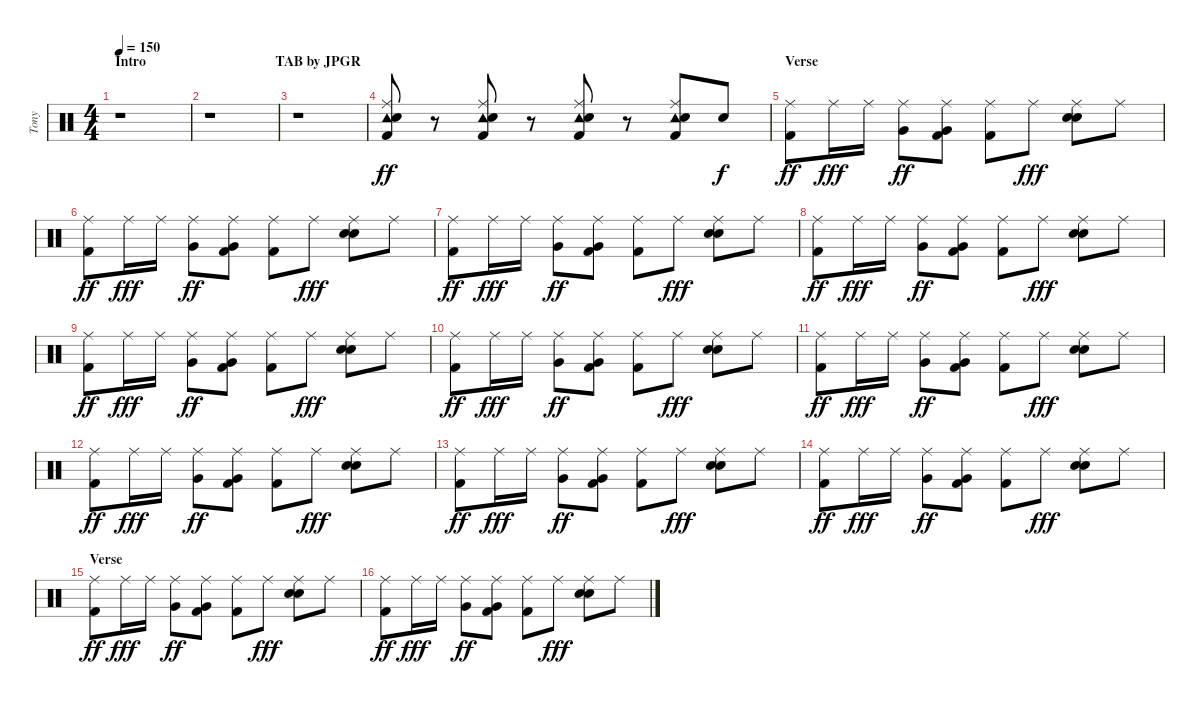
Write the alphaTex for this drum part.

\track ("Tony" "Tony") {instrument percussion}
\staff {score}
\articulation defaults
\ts (4 4)
\section ("" "Intro                                     TAB by JPGR")
\tempo 150
\clef neutral
\ks c
r.1{dy ff} |
r.1 |
r.1 |
("Tambourine (hit)" "Ride (middle)" "Electric Snare (hit)" "Kick (hit) 2").8 r.8 ("Tambourine (hit)" "Ride (middle)" "Electric Snare (hit)" "Kick (hit) 2").8 r.8 ("Tambourine (hit)" "Ride (middle)" "Electric Snare (hit)" "Kick (hit) 2").8 r.8 ("Tambourine (hit)" "Ride (middle)" "Electric Snare (hit)" "Kick (hit) 2").8 "Electric Snare (hit)".8{dy f} |
\section ("" "Verse")
("Ride (middle)" "Kick (hit) 2").8{dy ff} "Ride (middle)".16{dy fff} "Ride (middle)".16 ("Ride (middle)" "Very Low Tom (hit)").8{dy ff} ("Ride (middle)" "Very Low Tom (hit)" "Kick (hit) 2").8 ("Ride (middle)" "Kick (hit) 2").8 "Ride (middle)".8{dy fff} ("Ride (middle)" "Electric Snare (hit)" "Snare (hit) 2").8 "Ride (middle)".8 |
("Ride (middle)" "Kick (hit) 2").8{dy ff} "Ride (middle)".16{dy fff} "Ride (middle)".16 ("Ride (middle)" "Very Low Tom (hit)").8{dy ff} ("Ride (middle)" "Very Low Tom (hit)" "Kick (hit) 2").8 ("Ride (middle)" "Kick (hit) 2").8 "Ride (middle)".8{dy fff} ("Ride (middle)" "Electric Snare (hit)" "Snare (hit) 2").8 "Ride (middle)".8 |
("Ride (middle)" "Kick (hit) 2").8{dy ff} "Ride (middle)".16{dy fff} "Ride (middle)".16 ("Ride (middle)" "Very Low Tom (hit)").8{dy ff} ("Ride (middle)" "Very Low Tom (hit)" "Kick (hit) 2").8 ("Ride (middle)" "Kick (hit) 2").8 "Ride (middle)".8{dy fff} ("Ride (middle)" "Electric Snare (hit)" "Snare (hit) 2").8 "Ride (middle)".8 |
("Ride (middle)" "Kick (hit) 2").8{dy ff} "Ride (middle)".16{dy fff} "Ride (middle)".16 ("Ride (middle)" "Very Low Tom (hit)").8{dy ff} ("Ride (middle)" "Very Low Tom (hit)" "Kick (hit) 2").8 ("Ride (middle)" "Kick (hit) 2").8 "Ride (middle)".8{dy fff} ("Ride (middle)" "Electric Snare (hit)" "Snare (hit) 2").8 "Ride (middle)".8 |
("Ride (middle)" "Kick (hit) 2").8{dy ff} "Ride (middle)".16{dy fff} "Ride (middle)".16 ("Ride (middle)" "Very Low Tom (hit)").8{dy ff} ("Ride (middle)" "Very Low Tom (hit)" "Kick (hit) 2").8 ("Ride (middle)" "Kick (hit) 2").8 "Ride (middle)".8{dy fff} ("Ride (middle)" "Electric Snare (hit)" "Snare (hit) 2").8 "Ride (middle)".8 |
("Ride (middle)" "Kick (hit) 2").8{dy ff} "Ride (middle)".16{dy fff} "Ride (middle)".16 ("Ride (middle)" "Very Low Tom (hit)").8{dy ff} ("Ride (middle)" "Very Low Tom (hit)" "Kick (hit) 2").8 ("Ride (middle)" "Kick (hit) 2").8 "Ride (middle)".8{dy fff} ("Ride (middle)" "Electric Snare (hit)" "Snare (hit) 2").8 "Ride (middle)".8 |
("Ride (middle)" "Kick (hit) 2").8{dy ff} "Ride (middle)".16{dy fff} "Ride (middle)".16 ("Ride (middle)" "Very Low Tom (hit)").8{dy ff} ("Ride (middle)" "Very Low Tom (hit)" "Kick (hit) 2").8 ("Ride (middle)" "Kick (hit) 2").8 "Ride (middle)".8{dy fff} ("Ride (middle)" "Electric Snare (hit)" "Snare (hit) 2").8 "Ride (middle)".8 |
("Ride (middle)" "Kick (hit) 2").8{dy ff} "Ride (middle)".16{dy fff} "Ride (middle)".16 ("Ride (middle)" "Very Low Tom (hit)").8{dy ff} ("Ride (middle)" "Very Low Tom (hit)" "Kick (hit) 2").8 ("Ride (middle)" "Kick (hit) 2").8 "Ride (middle)".8{dy fff} ("Ride (middle)" "Electric Snare (hit)" "Snare (hit) 2").8 "Ride (middle)".8 |
("Ride (middle)" "Kick (hit) 2").8{dy ff} "Ride (middle)".16{dy fff} "Ride (middle)".16 ("Ride (middle)" "Very Low Tom (hit)").8{dy ff} ("Ride (middle)" "Very Low Tom (hit)" "Kick (hit) 2").8 ("Ride (middle)" "Kick (hit) 2").8 "Ride (middle)".8{dy fff} ("Ride (middle)" "Electric Snare (hit)" "Snare (hit) 2").8 "Ride (middle)".8 |
("Ride (middle)" "Kick (hit) 2").8{dy ff} "Ride (middle)".16{dy fff} "Ride (middle)".16 ("Ride (middle)" "Very Low Tom (hit)").8{dy ff} ("Ride (middle)" "Very Low Tom (hit)" "Kick (hit) 2").8 ("Ride (middle)" "Kick (hit) 2").8 "Ride (middle)".8{dy fff} ("Ride (middle)" "Electric Snare (hit)" "Snare (hit) 2").8 "Ride (middle)".8 |
\section ("" "Verse")
("Ride (middle)" "Kick (hit) 2").8{dy ff} "Ride (middle)".16{dy fff} "Ride (middle)".16 ("Ride (middle)" "Very Low Tom (hit)").8{dy ff} ("Ride (middle)" "Very Low Tom (hit)" "Kick (hit) 2").8 ("Ride (middle)" "Kick (hit) 2").8 "Ride (middle)".8{dy fff} ("Ride (middle)" "Electric Snare (hit)" "Snare (hit) 2").8 "Ride (middle)".8 |
("Ride (middle)" "Kick (hit) 2").8{dy ff} "Ride (middle)".16{dy fff} "Ride (middle)".16 ("Ride (middle)" "Very Low Tom (hit)").8{dy ff} ("Ride (middle)" "Very Low Tom (hit)" "Kick (hit) 2").8 ("Ride (middle)" "Kick (hit) 2").8 "Ride (middle)".8{dy fff} ("Ride (middle)" "Electric Snare (hit)" "Snare (hit) 2").8 "Ride (middle)".8
